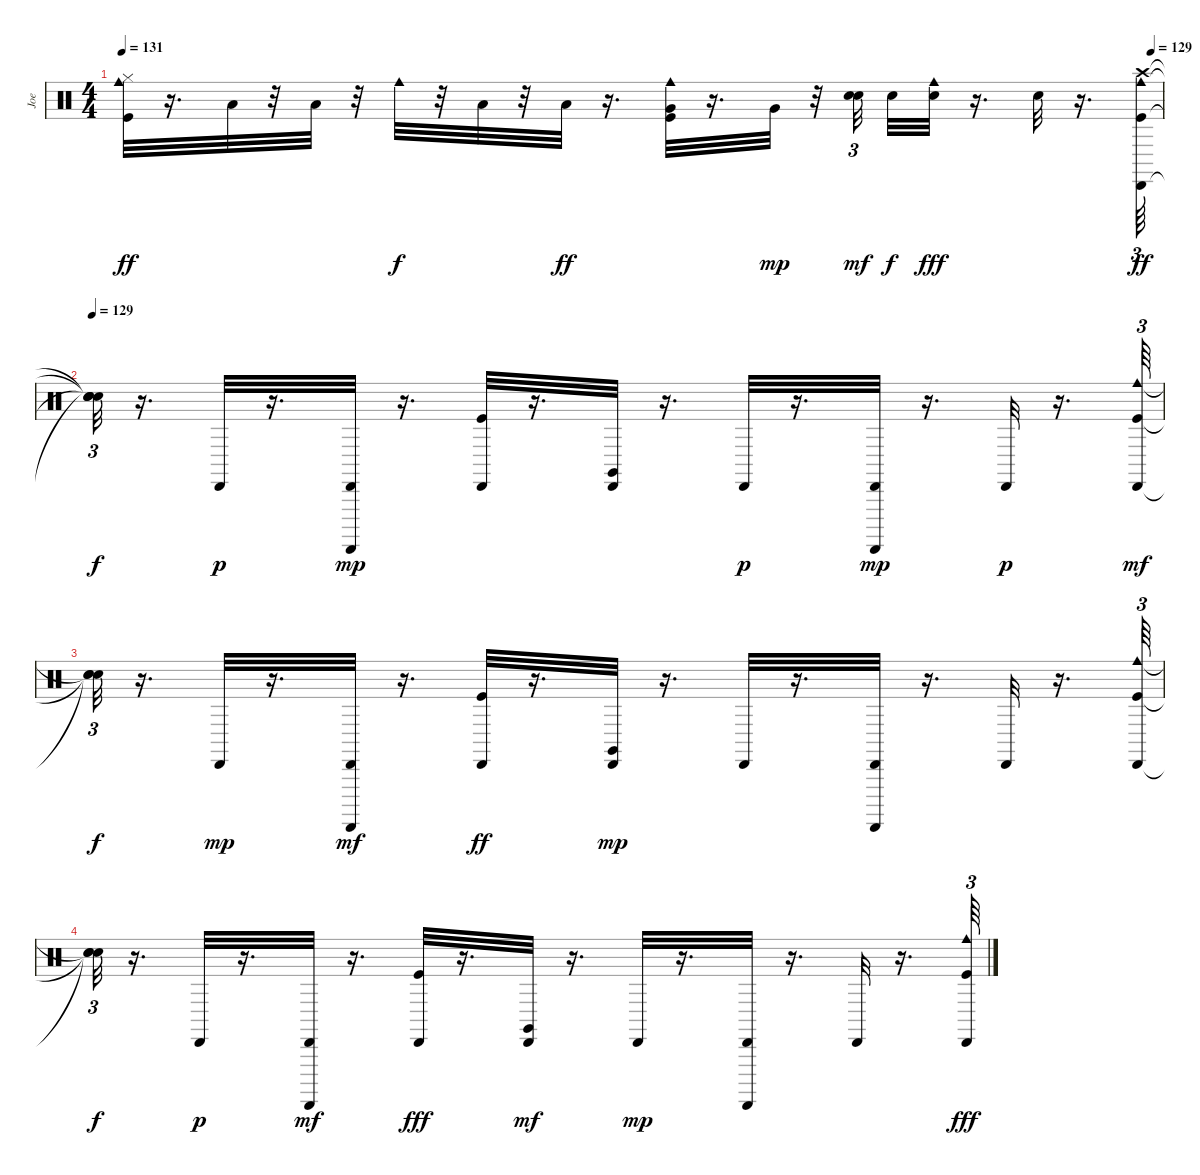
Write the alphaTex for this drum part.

\track ("Joe" "Joe") {instrument percussion}
\staff {score}
\articulation defaults
\ts (4 4)
\tempo 131
\tempo (129 0.9895833333333334)
\clef neutral
\ks c
("Cowbell medium (hit)" "Kick (hit)" "Hi-Hat (closed)").32{dy ff} r.16{d} "Low Tom (hit)".32 r.32 "Low Tom (hit)".32 r.32 "Cowbell medium (hit)".32{dy f} r.32 "Low Tom (hit)".32 r.32 "Low Tom (hit)".32{dy ff} r.16{d} ("Very Low Tom (hit)" "Kick (hit)" "Cowbell medium (hit)").32 r.16{d} "Very Low Tom (hit)".32{dy mp} r.32 ("Snare (hit) 2" "Snare (hit) 2").32{tu (3 2) dy mf beam splitsecondary} "Snare (hit) 2".32{dy f} ("Snare (hit) 2" "Cowbell medium (hit)").32{dy fff} r.16{d} "Snare (hit) 2".32 r.16{d} ("Cowbell medium (hit)" "Cabasa (hit)" "Crash high (hit)" "Kick (hit)").64{tu (3 2) dy ff} |
\tempo 129
("Snare (hit)"{t} "Snare (hit)"{t} "Snare (hit)"{t} "Snare (hit)"{t}).32{tu (3 2) dy f} r.16{d} "Cabasa (hit)".32{dy p} r.16{d} ("Guiro (scrap-return)" "Cabasa (hit)").32{dy mp} r.16{d} ("Kick (hit)" "Cabasa (hit)").32 r.16{d} ("Cabasa (hit)" "Claves (hit)").32 r.16{d} "Cabasa (hit)".32{dy p} r.16{d} ("Cabasa (hit)" "Guiro (scrap-return)").32{dy mp} r.16{d} "Cabasa (hit)".32{dy p} r.16{d} ("Cabasa (hit)" "Kick (hit)" "Cowbell medium (hit)").64{tu (3 2) dy mf} |
("Snare (hit)"{t} "Snare (hit)"{t} "Snare (hit)"{t}).32{tu (3 2) dy f} r.16{d} "Cabasa (hit)".32{dy mp} r.16{d} ("Guiro (scrap-return)" "Cabasa (hit)").32{dy mf} r.16{d} ("Cabasa (hit)" "Kick (hit)").32{dy ff} r.16{d} ("Claves (hit)" "Cabasa (hit)").32{dy mp} r.16{d} "Cabasa (hit)".32 r.16{d} ("Cabasa (hit)" "Guiro (scrap-return)").32 r.16{d} "Cabasa (hit)".32 r.16{d} ("Cowbell medium (hit)" "Kick (hit)" "Cabasa (hit)").64{tu (3 2)} |
("Snare (hit)"{t} "Snare (hit)"{t} "Snare (hit)"{t}).32{tu (3 2) dy f} r.16{d} "Cabasa (hit)".32{dy p} r.16{d} ("Cabasa (hit)" "Guiro (scrap-return)").32{dy mf} r.16{d} ("Cabasa (hit)" "Kick (hit)").32{dy fff} r.16{d} ("Cabasa (hit)" "Claves (hit)").32{dy mf} r.16{d} "Cabasa (hit)".32{dy mp} r.16{d} ("Guiro (scrap-return)" "Cabasa (hit)").32 r.16{d} "Cabasa (hit)".32 r.16{d} ("Cowbell medium (hit)" "Cabasa (hit)" "Kick (hit)").64{tu (3 2) dy fff}
